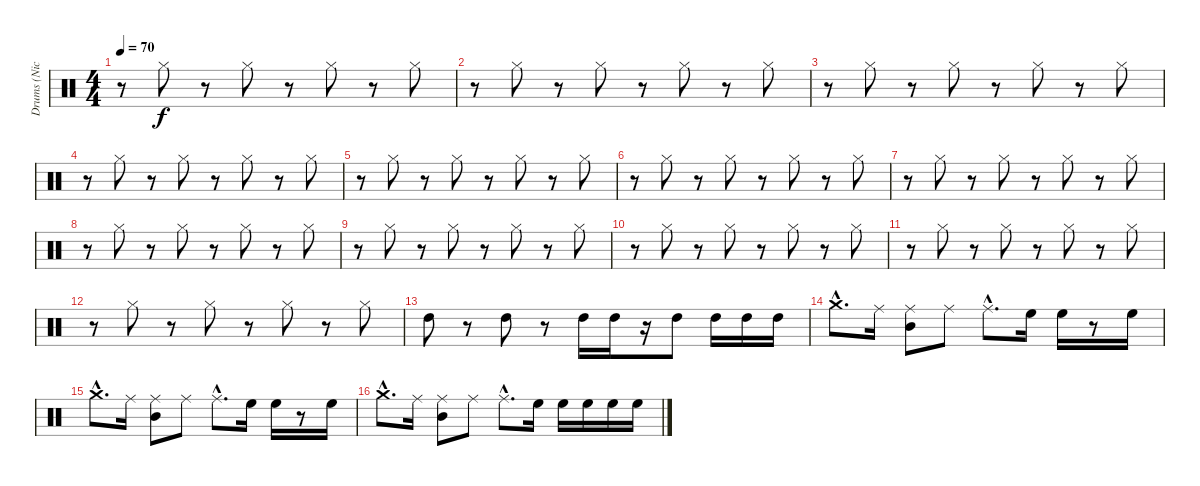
\track ("Drums (Nick Mason)" "Drums (Nic") {instrument percussion}
\staff {score}
\articulation defaults
\ts (4 4)
\tempo 70
\clef neutral
\ks c
r.8{dy f} "Hi-Hat (closed)".8 r.8 "Hi-Hat (closed)".8 r.8 "Hi-Hat (closed)".8 r.8 "Hi-Hat (closed)".8 |
r.8 "Hi-Hat (closed)".8 r.8 "Hi-Hat (closed)".8 r.8 "Hi-Hat (closed)".8 r.8 "Hi-Hat (closed)".8 |
r.8 "Hi-Hat (closed)".8 r.8 "Hi-Hat (closed)".8 r.8 "Hi-Hat (closed)".8 r.8 "Hi-Hat (closed)".8 |
r.8 "Hi-Hat (closed)".8 r.8 "Hi-Hat (closed)".8 r.8 "Hi-Hat (closed)".8 r.8 "Hi-Hat (closed)".8 |
r.8 "Hi-Hat (closed)".8 r.8 "Hi-Hat (closed)".8 r.8 "Hi-Hat (closed)".8 r.8 "Hi-Hat (closed)".8 |
r.8 "Hi-Hat (closed)".8 r.8 "Hi-Hat (closed)".8 r.8 "Hi-Hat (closed)".8 r.8 "Hi-Hat (closed)".8 |
r.8 "Hi-Hat (closed)".8 r.8 "Hi-Hat (closed)".8 r.8 "Hi-Hat (closed)".8 r.8 "Hi-Hat (closed)".8 |
r.8 "Hi-Hat (closed)".8 r.8 "Hi-Hat (closed)".8 r.8 "Hi-Hat (closed)".8 r.8 "Hi-Hat (closed)".8 |
r.8 "Hi-Hat (closed)".8 r.8 "Hi-Hat (closed)".8 r.8 "Hi-Hat (closed)".8 r.8 "Hi-Hat (closed)".8 |
r.8 "Hi-Hat (closed)".8 r.8 "Hi-Hat (closed)".8 r.8 "Hi-Hat (closed)".8 r.8 "Hi-Hat (closed)".8 |
r.8 "Hi-Hat (closed)".8 r.8 "Hi-Hat (closed)".8 r.8 "Hi-Hat (closed)".8 r.8 "Hi-Hat (closed)".8 |
r.8 "Hi-Hat (closed)".8 r.8 "Hi-Hat (closed)".8 r.8 "Hi-Hat (closed)".8 r.8 "Hi-Hat (closed)".8 |
"High Tom (hit)".8 r.8 "High Tom (hit)".8 r.8 "High Tom (hit)".16 "High Tom (hit)".16 r.16 "High Tom (hit)".8 "High Tom (hit)".16 "High Tom (hit)".16 "High Tom (hit)".16 |
"Crash medium (hit)"{hac}.8{d} "Ride (middle)".16 ("Ride (middle)" "Mid Tom (hit)").8 "Ride (middle)".8 "Ride (middle)"{hac}.8{d} "High Floor Tom (hit)".16 "High Floor Tom (hit)".16 r.8 "High Floor Tom (hit)".16 |
"Crash medium (hit)"{hac}.8{d} "Ride (middle)".16 ("Ride (middle)" "Mid Tom (hit)").8 "Ride (middle)".8 "Ride (middle)"{hac}.8{d} "High Floor Tom (hit)".16 "High Floor Tom (hit)".16 r.8 "High Floor Tom (hit)".16 |
"Crash medium (hit)"{hac}.8{d} "Ride (middle)".16 ("Ride (middle)" "Mid Tom (hit)").8 "Ride (middle)".8 "Ride (middle)"{hac}.8{d} "High Floor Tom (hit)".16 "High Floor Tom (hit)".16 "High Floor Tom (hit)".16 "High Floor Tom (hit)".16 "High Floor Tom (hit)".16
